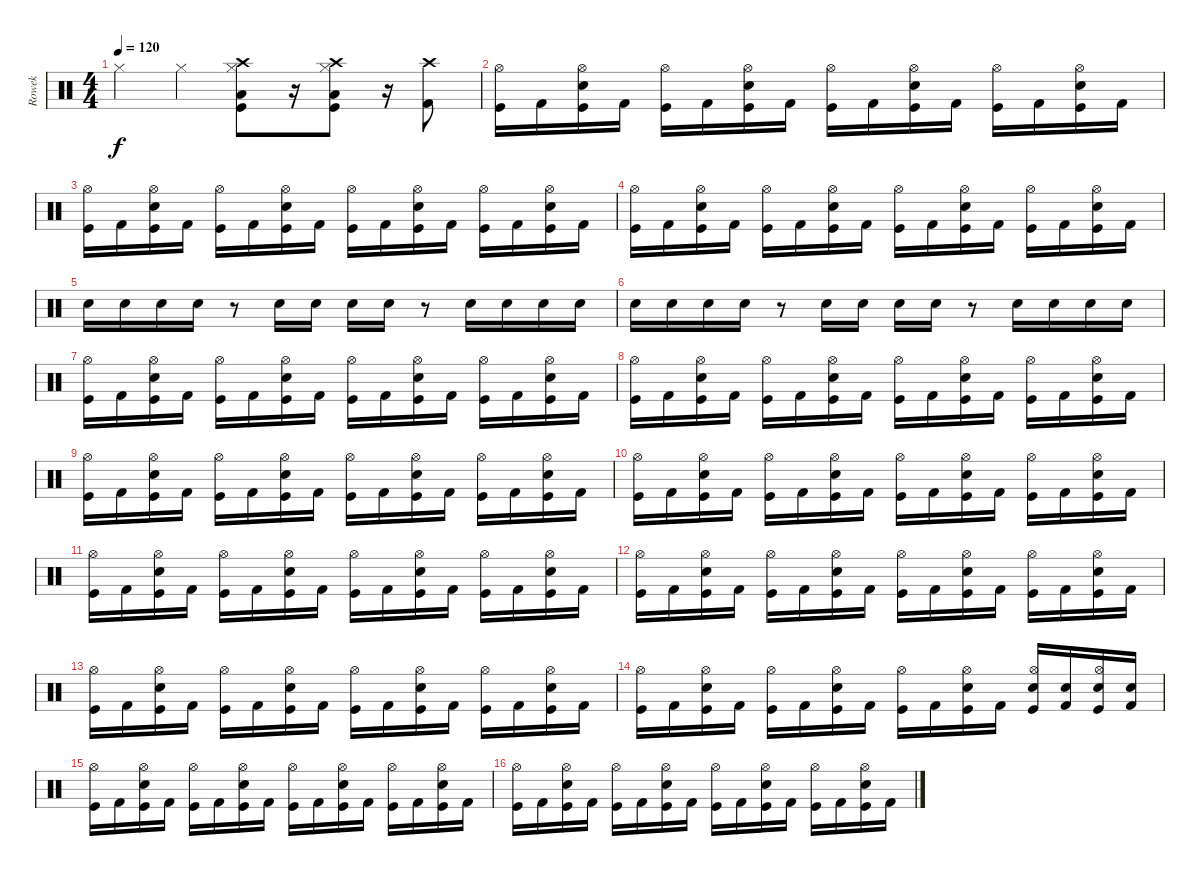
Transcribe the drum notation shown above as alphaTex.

\track ("Rowek" "Rowek") {instrument percussion}
\staff {score}
\articulation defaults
\ts (4 4)
\tempo 120
\clef neutral
\ks c "Hi-Hat (closed)".4{dy f} "Hi-Hat (closed)".4
("Hi-Hat (closed)" "Crash high (hit)" "Low Tom (hit)" "Kick (hit)").8 r.16 ("Hi-Hat (closed)" "Crash high (hit)" "Low Tom (hit)" "Kick (hit)").8 r.16 ("Crash high (hit)" "Kick (hit) 2").8 |
("Hi-Hat (open)" "Kick (hit)").16 "Kick (hit) 2".16 ("Hi-Hat (open)" "Snare (hit) 2" "Kick (hit)").16 "Kick (hit) 2".16 ("Hi-Hat (open)" "Kick (hit)").16 "Kick (hit) 2".16 ("Hi-Hat (open)" "Snare (hit) 2" "Kick (hit)").16 "Kick (hit) 2".16 ("Hi-Hat (open)" "Kick (hit)").16 "Kick (hit) 2".16 ("Hi-Hat (open)" "Snare (hit) 2" "Kick (hit)").16 "Kick (hit) 2".16 ("Hi-Hat (open)" "Kick (hit)").16 "Kick (hit) 2".16 ("Hi-Hat (open)" "Snare (hit) 2" "Kick (hit)").16 "Kick (hit) 2".16 |
("Hi-Hat (open)" "Kick (hit)").16 "Kick (hit) 2".16 ("Hi-Hat (open)" "Snare (hit) 2" "Kick (hit)").16 "Kick (hit) 2".16 ("Hi-Hat (open)" "Kick (hit)").16 "Kick (hit) 2".16 ("Hi-Hat (open)" "Snare (hit) 2" "Kick (hit)").16 "Kick (hit) 2".16 ("Hi-Hat (open)" "Kick (hit)").16 "Kick (hit) 2".16 ("Hi-Hat (open)" "Snare (hit) 2" "Kick (hit)").16 "Kick (hit) 2".16 ("Hi-Hat (open)" "Kick (hit)").16 "Kick (hit) 2".16 ("Hi-Hat (open)" "Snare (hit) 2" "Kick (hit)").16 "Kick (hit) 2".16 |
("Hi-Hat (open)" "Kick (hit)").16 "Kick (hit) 2".16 ("Hi-Hat (open)" "Snare (hit) 2" "Kick (hit)").16 "Kick (hit) 2".16 ("Hi-Hat (open)" "Kick (hit)").16 "Kick (hit) 2".16 ("Hi-Hat (open)" "Snare (hit) 2" "Kick (hit)").16 "Kick (hit) 2".16 ("Hi-Hat (open)" "Kick (hit)").16 "Kick (hit) 2".16 ("Hi-Hat (open)" "Snare (hit) 2" "Kick (hit)").16 "Kick (hit) 2".16 ("Hi-Hat (open)" "Kick (hit)").16 "Kick (hit) 2".16 ("Hi-Hat (open)" "Snare (hit) 2" "Kick (hit)").16 "Kick (hit) 2".16 |
"Electric Snare (hit)".16 "Electric Snare (hit)".16 "Electric Snare (hit)".16 "Electric Snare (hit)".16 r.8 "Electric Snare (hit)".16 "Electric Snare (hit)".16 "Electric Snare (hit)".16 "Electric Snare (hit)".16 r.8 "Electric Snare (hit)".16 "Electric Snare (hit)".16 "Electric Snare (hit)".16 "Electric Snare (hit)".16 |
"Snare (hit) 2".16 "Snare (hit) 2".16 "Snare (hit) 2".16 "Snare (hit) 2".16 r.8 "Snare (hit) 2".16 "Snare (hit) 2".16 "Snare (hit) 2".16 "Snare (hit) 2".16 r.8 "Snare (hit) 2".16 "Snare (hit) 2".16 "Snare (hit) 2".16 "Snare (hit) 2".16 |
("Hi-Hat (open)" "Kick (hit)").16 "Kick (hit) 2".16 ("Hi-Hat (open)" "Snare (hit) 2" "Kick (hit)").16 "Kick (hit) 2".16 ("Hi-Hat (open)" "Kick (hit)").16 "Kick (hit) 2".16 ("Hi-Hat (open)" "Snare (hit) 2" "Kick (hit)").16 "Kick (hit) 2".16 ("Hi-Hat (open)" "Kick (hit)").16 "Kick (hit) 2".16 ("Hi-Hat (open)" "Snare (hit) 2" "Kick (hit)").16 "Kick (hit) 2".16 ("Hi-Hat (open)" "Kick (hit)").16 "Kick (hit) 2".16 ("Hi-Hat (open)" "Snare (hit) 2" "Kick (hit)").16 "Kick (hit) 2".16 |
("Hi-Hat (open)" "Kick (hit)").16 "Kick (hit) 2".16 ("Hi-Hat (open)" "Snare (hit) 2" "Kick (hit)").16 "Kick (hit) 2".16 ("Hi-Hat (open)" "Kick (hit)").16 "Kick (hit) 2".16 ("Hi-Hat (open)" "Snare (hit) 2" "Kick (hit)").16 "Kick (hit) 2".16 ("Hi-Hat (open)" "Kick (hit)").16 "Kick (hit) 2".16 ("Hi-Hat (open)" "Snare (hit) 2" "Kick (hit)").16 "Kick (hit) 2".16 ("Hi-Hat (open)" "Kick (hit)").16 "Kick (hit) 2".16 ("Hi-Hat (open)" "Snare (hit) 2" "Kick (hit)").16 "Kick (hit) 2".16 |
("Hi-Hat (open)" "Kick (hit)").16 "Kick (hit) 2".16 ("Hi-Hat (open)" "Snare (hit) 2" "Kick (hit)").16 "Kick (hit) 2".16 ("Hi-Hat (open)" "Kick (hit)").16 "Kick (hit) 2".16 ("Hi-Hat (open)" "Snare (hit) 2" "Kick (hit)").16 "Kick (hit) 2".16 ("Hi-Hat (open)" "Kick (hit)").16 "Kick (hit) 2".16 ("Hi-Hat (open)" "Snare (hit) 2" "Kick (hit)").16 "Kick (hit) 2".16 ("Hi-Hat (open)" "Kick (hit)").16 "Kick (hit) 2".16 ("Hi-Hat (open)" "Snare (hit) 2" "Kick (hit)").16 "Kick (hit) 2".16 |
("Hi-Hat (open)" "Kick (hit)").16 "Kick (hit) 2".16 ("Hi-Hat (open)" "Snare (hit) 2" "Kick (hit)").16 "Kick (hit) 2".16 ("Hi-Hat (open)" "Kick (hit)").16 "Kick (hit) 2".16 ("Hi-Hat (open)" "Snare (hit) 2" "Kick (hit)").16 "Kick (hit) 2".16 ("Hi-Hat (open)" "Kick (hit)").16 "Kick (hit) 2".16 ("Hi-Hat (open)" "Snare (hit) 2" "Kick (hit)").16 "Kick (hit) 2".16 ("Hi-Hat (open)" "Kick (hit)").16 "Kick (hit) 2".16 ("Hi-Hat (open)" "Snare (hit) 2" "Kick (hit)").16 "Kick (hit) 2".16 |
("Hi-Hat (open)" "Kick (hit)").16 "Kick (hit) 2".16 ("Hi-Hat (open)" "Snare (hit) 2" "Kick (hit)").16 "Kick (hit) 2".16 ("Hi-Hat (open)" "Kick (hit)").16 "Kick (hit) 2".16 ("Hi-Hat (open)" "Snare (hit) 2" "Kick (hit)").16 "Kick (hit) 2".16 ("Hi-Hat (open)" "Kick (hit)").16 "Kick (hit) 2".16 ("Hi-Hat (open)" "Snare (hit) 2" "Kick (hit)").16 "Kick (hit) 2".16 ("Hi-Hat (open)" "Kick (hit)").16 "Kick (hit) 2".16 ("Hi-Hat (open)" "Snare (hit) 2" "Kick (hit)").16 "Kick (hit) 2".16 |
("Hi-Hat (open)" "Kick (hit)").16 "Kick (hit) 2".16 ("Hi-Hat (open)" "Snare (hit) 2" "Kick (hit)").16 "Kick (hit) 2".16 ("Hi-Hat (open)" "Kick (hit)").16 "Kick (hit) 2".16 ("Hi-Hat (open)" "Snare (hit) 2" "Kick (hit)").16 "Kick (hit) 2".16 ("Hi-Hat (open)" "Kick (hit)").16 "Kick (hit) 2".16 ("Hi-Hat (open)" "Snare (hit) 2" "Kick (hit)").16 "Kick (hit) 2".16 ("Hi-Hat (open)" "Kick (hit)").16 "Kick (hit) 2".16 ("Hi-Hat (open)" "Snare (hit) 2" "Kick (hit)").16 "Kick (hit) 2".16 |
("Hi-Hat (open)" "Kick (hit)").16 "Kick (hit) 2".16 ("Hi-Hat (open)" "Snare (hit) 2" "Kick (hit)").16 "Kick (hit) 2".16 ("Hi-Hat (open)" "Kick (hit)").16 "Kick (hit) 2".16 ("Hi-Hat (open)" "Snare (hit) 2" "Kick (hit)").16 "Kick (hit) 2".16 ("Hi-Hat (open)" "Kick (hit)").16 "Kick (hit) 2".16 ("Hi-Hat (open)" "Snare (hit) 2" "Kick (hit)").16 "Kick (hit) 2".16 ("Hi-Hat (open)" "Kick (hit)").16 "Kick (hit) 2".16 ("Hi-Hat (open)" "Snare (hit) 2" "Kick (hit)").16 "Kick (hit) 2".16 |
("Hi-Hat (open)" "Kick (hit)").16 "Kick (hit) 2".16 ("Hi-Hat (open)" "Snare (hit) 2" "Kick (hit)").16 "Kick (hit) 2".16 ("Hi-Hat (open)" "Kick (hit)").16 "Kick (hit) 2".16 ("Hi-Hat (open)" "Snare (hit) 2" "Kick (hit)").16 "Kick (hit) 2".16 ("Hi-Hat (open)" "Kick (hit)").16 "Kick (hit) 2".16 ("Hi-Hat (open)" "Snare (hit) 2" "Kick (hit)").16 "Kick (hit) 2".16 ("Hi-Hat (open)" "Snare (hit) 2" "Kick (hit)").16 ("Snare (hit) 2" "Kick (hit) 2").16 ("Hi-Hat (open)" "Snare (hit) 2" "Kick (hit)").16 ("Snare (hit) 2" "Kick (hit) 2").16 |
("Hi-Hat (open)" "Kick (hit)").16 "Kick (hit) 2".16 ("Hi-Hat (open)" "Snare (hit) 2" "Kick (hit)").16 "Kick (hit) 2".16 ("Hi-Hat (open)" "Kick (hit)").16 "Kick (hit) 2".16 ("Hi-Hat (open)" "Snare (hit) 2" "Kick (hit)").16 "Kick (hit) 2".16 ("Hi-Hat (open)" "Kick (hit)").16 "Kick (hit) 2".16 ("Hi-Hat (open)" "Snare (hit) 2" "Kick (hit)").16 "Kick (hit) 2".16 ("Hi-Hat (open)" "Kick (hit)").16 "Kick (hit) 2".16 ("Hi-Hat (open)" "Snare (hit) 2" "Kick (hit)").16 "Kick (hit) 2".16 |
("Hi-Hat (open)" "Kick (hit)").16 "Kick (hit) 2".16 ("Hi-Hat (open)" "Snare (hit) 2" "Kick (hit)").16 "Kick (hit) 2".16 ("Hi-Hat (open)" "Kick (hit)").16 "Kick (hit) 2".16 ("Hi-Hat (open)" "Snare (hit) 2" "Kick (hit)").16 "Kick (hit) 2".16 ("Hi-Hat (open)" "Kick (hit)").16 "Kick (hit) 2".16 ("Hi-Hat (open)" "Snare (hit) 2" "Kick (hit)").16 "Kick (hit) 2".16 ("Hi-Hat (open)" "Kick (hit)").16 "Kick (hit) 2".16 ("Hi-Hat (open)" "Snare (hit) 2" "Kick (hit)").16 "Kick (hit) 2".16
